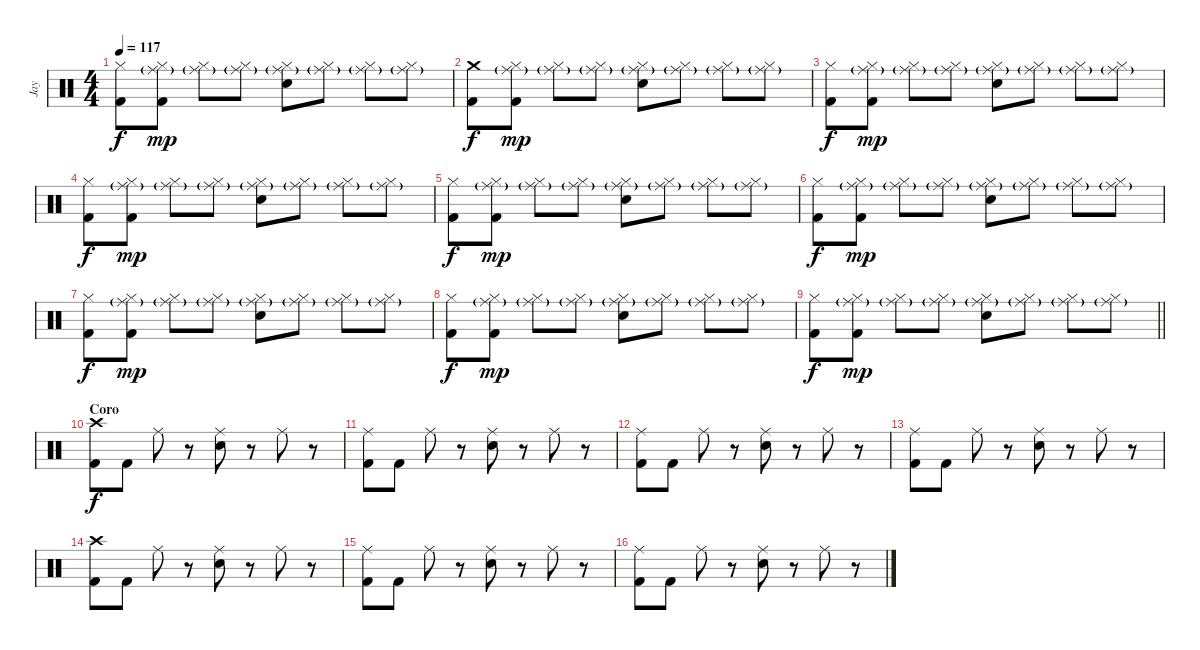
\track ("Jay" "Jay") {instrument percussion}
\staff {score}
\articulation defaults
\ts (4 4)
\tempo 117
\clef neutral
\ks c
("Hi-Hat (closed)" "Kick (hit) 2").8{dy f} ("Hi-Hat (closed)" "Ride (middle)"{g} "Kick (hit) 2").8{dy mp} ("Hi-Hat (closed)" "Ride (middle)"{g}).8 ("Hi-Hat (closed)" "Ride (middle)"{g}).8 ("Hi-Hat (closed)" "Ride (middle)"{g} "Snare (hit) 2").8 ("Hi-Hat (closed)" "Ride (middle)"{g}).8 ("Hi-Hat (closed)" "Ride (middle)"{g}).8 ("Hi-Hat (closed)" "Ride (middle)"{g}).8 |
("Crash medium (hit)" "Kick (hit) 2").8{dy f} ("Hi-Hat (closed)" "Ride (middle)"{g} "Kick (hit) 2").8{dy mp} ("Hi-Hat (closed)" "Ride (middle)"{g}).8 ("Hi-Hat (closed)" "Ride (middle)"{g}).8 ("Hi-Hat (closed)" "Ride (middle)"{g} "Snare (hit) 2").8 ("Hi-Hat (closed)" "Ride (middle)"{g}).8 ("Hi-Hat (closed)" "Ride (middle)"{g}).8 ("Hi-Hat (closed)" "Ride (middle)"{g}).8 |
("Hi-Hat (closed)" "Kick (hit) 2").8{dy f} ("Hi-Hat (closed)" "Ride (middle)"{g} "Kick (hit) 2").8{dy mp} ("Hi-Hat (closed)" "Ride (middle)"{g}).8 ("Hi-Hat (closed)" "Ride (middle)"{g}).8 ("Hi-Hat (closed)" "Ride (middle)"{g} "Snare (hit) 2").8 ("Hi-Hat (closed)" "Ride (middle)"{g}).8 ("Hi-Hat (closed)" "Ride (middle)"{g}).8 ("Hi-Hat (closed)" "Ride (middle)"{g}).8 |
("Hi-Hat (closed)" "Kick (hit) 2").8{dy f} ("Hi-Hat (closed)" "Ride (middle)"{g} "Kick (hit) 2").8{dy mp} ("Hi-Hat (closed)" "Ride (middle)"{g}).8 ("Hi-Hat (closed)" "Ride (middle)"{g}).8 ("Hi-Hat (closed)" "Ride (middle)"{g} "Snare (hit) 2").8 ("Hi-Hat (closed)" "Ride (middle)"{g}).8 ("Hi-Hat (closed)" "Ride (middle)"{g}).8 ("Hi-Hat (closed)" "Ride (middle)"{g}).8 |
("Hi-Hat (closed)" "Kick (hit) 2").8{dy f} ("Hi-Hat (closed)" "Ride (middle)"{g} "Kick (hit) 2").8{dy mp} ("Hi-Hat (closed)" "Ride (middle)"{g}).8 ("Hi-Hat (closed)" "Ride (middle)"{g}).8 ("Hi-Hat (closed)" "Ride (middle)"{g} "Snare (hit) 2").8 ("Hi-Hat (closed)" "Ride (middle)"{g}).8 ("Hi-Hat (closed)" "Ride (middle)"{g}).8 ("Hi-Hat (closed)" "Ride (middle)"{g}).8 |
("Hi-Hat (closed)" "Kick (hit) 2").8{dy f} ("Hi-Hat (closed)" "Ride (middle)"{g} "Kick (hit) 2").8{dy mp} ("Hi-Hat (closed)" "Ride (middle)"{g}).8 ("Hi-Hat (closed)" "Ride (middle)"{g}).8 ("Hi-Hat (closed)" "Ride (middle)"{g} "Snare (hit) 2").8 ("Hi-Hat (closed)" "Ride (middle)"{g}).8 ("Hi-Hat (closed)" "Ride (middle)"{g}).8 ("Hi-Hat (closed)" "Ride (middle)"{g}).8 |
("Hi-Hat (closed)" "Kick (hit) 2").8{dy f} ("Hi-Hat (closed)" "Ride (middle)"{g} "Kick (hit) 2").8{dy mp} ("Hi-Hat (closed)" "Ride (middle)"{g}).8 ("Hi-Hat (closed)" "Ride (middle)"{g}).8 ("Hi-Hat (closed)" "Ride (middle)"{g} "Snare (hit) 2").8 ("Hi-Hat (closed)" "Ride (middle)"{g}).8 ("Hi-Hat (closed)" "Ride (middle)"{g}).8 ("Hi-Hat (closed)" "Ride (middle)"{g}).8 |
("Hi-Hat (closed)" "Kick (hit) 2").8{dy f} ("Hi-Hat (closed)" "Ride (middle)"{g} "Kick (hit) 2").8{dy mp} ("Hi-Hat (closed)" "Ride (middle)"{g}).8 ("Hi-Hat (closed)" "Ride (middle)"{g}).8 ("Hi-Hat (closed)" "Ride (middle)"{g} "Snare (hit) 2").8 ("Hi-Hat (closed)" "Ride (middle)"{g}).8 ("Hi-Hat (closed)" "Ride (middle)"{g}).8 ("Hi-Hat (closed)" "Ride (middle)"{g}).8 |
\barLineRight lightlight
("Hi-Hat (closed)" "Kick (hit) 2").8{dy f} ("Hi-Hat (closed)" "Ride (middle)"{g} "Kick (hit) 2").8{dy mp} ("Hi-Hat (closed)" "Ride (middle)"{g}).8 ("Hi-Hat (closed)" "Ride (middle)"{g}).8 ("Hi-Hat (closed)" "Ride (middle)"{g} "Snare (hit) 2").8 ("Hi-Hat (closed)" "Ride (middle)"{g}).8 ("Hi-Hat (closed)" "Ride (middle)"{g}).8 ("Hi-Hat (closed)" "Ride (middle)"{g}).8 |
\section ("" "Coro")
("Crash high (hit)" "Kick (hit) 2").8{dy f} "Kick (hit) 2".8 "Ride (middle)".8 r.8 ("Ride (middle)" "Snare (hit) 2").8 r.8 "Ride (middle)".8 r.8 |
("Ride (middle)" "Kick (hit) 2").8 "Kick (hit) 2".8 "Ride (middle)".8 r.8 ("Ride (middle)" "Snare (hit) 2").8 r.8 "Ride (middle)".8 r.8 |
("Ride (middle)" "Kick (hit) 2").8 "Kick (hit) 2".8 "Ride (middle)".8 r.8 ("Ride (middle)" "Snare (hit) 2").8 r.8 "Ride (middle)".8 r.8 |
("Ride (middle)" "Kick (hit) 2").8 "Kick (hit) 2".8 "Ride (middle)".8 r.8 ("Ride (middle)" "Snare (hit) 2").8 r.8 "Ride (middle)".8 r.8 |
("Crash high (hit)" "Kick (hit) 2").8 "Kick (hit) 2".8 "Ride (middle)".8 r.8 ("Ride (middle)" "Snare (hit) 2").8 r.8 "Ride (middle)".8 r.8 |
("Ride (middle)" "Kick (hit) 2").8 "Kick (hit) 2".8 "Ride (middle)".8 r.8 ("Ride (middle)" "Snare (hit) 2").8 r.8 "Ride (middle)".8 r.8 |
("Ride (middle)" "Kick (hit) 2").8 "Kick (hit) 2".8 "Ride (middle)".8 r.8 ("Ride (middle)" "Snare (hit) 2").8 r.8 "Ride (middle)".8 r.8
